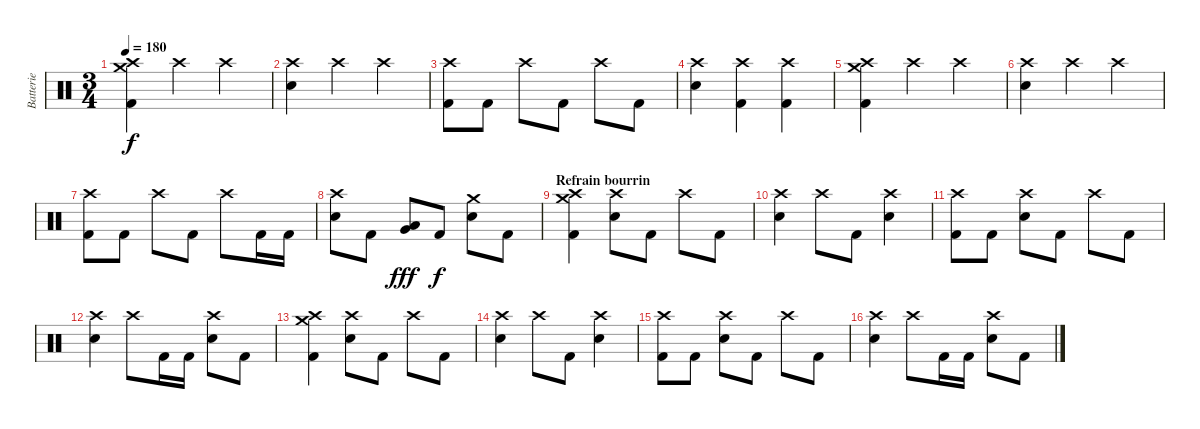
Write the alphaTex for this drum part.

\track ("Batterie" "Batterie") {instrument percussion}
\staff {score}
\articulation defaults
\ts (3 4)
\tempo 180
\clef neutral
\ks c
("Crash medium (hit)" "Crash high (hit)" "Kick (hit) 2").4{dy f} "Crash high (hit)".4 "Crash high (hit)".4 |
("Crash high (hit)" "Electric Snare (hit)").4 "Crash high (hit)".4 "Crash high (hit)".4 |
("Crash high (hit)" "Kick (hit) 2").8 "Kick (hit) 2".8 "Crash high (hit)".8 "Kick (hit) 2".8 "Crash high (hit)".8 "Kick (hit) 2".8 |
("Crash high (hit)" "Electric Snare (hit)").4 ("Crash high (hit)" "Kick (hit) 2").4 ("Crash high (hit)" "Kick (hit) 2").4 |
("Crash medium (hit)" "Crash high (hit)" "Kick (hit) 2").4 "Crash high (hit)".4 "Crash high (hit)".4 |
("Crash high (hit)" "Electric Snare (hit)").4 "Crash high (hit)".4 "Crash high (hit)".4 |
("Crash high (hit)" "Kick (hit) 2").8 "Kick (hit) 2".8 "Crash high (hit)".8 "Kick (hit) 2".8 "Crash high (hit)".8 "Kick (hit) 2".16 "Kick (hit) 2".16 |
("Crash high (hit)" "Electric Snare (hit)").8 "Kick (hit) 2".8 ("Low Tom (hit)" "Very Low Tom (hit)").8{dy fff} "Kick (hit) 2".8{dy f} ("Crash medium (hit)" "Electric Snare (hit)").8 "Kick (hit) 2".8 |
\section ("" "Refrain bourrin")
("Crash medium (hit)" "Crash high (hit)" "Kick (hit) 2").4 ("Crash high (hit)" "Electric Snare (hit)").8 "Kick (hit) 2".8 "Crash high (hit)".8 "Kick (hit) 2".8 |
("Crash high (hit)" "Electric Snare (hit)").4 "Crash high (hit)".8 "Kick (hit) 2".8 ("Crash high (hit)" "Electric Snare (hit)").4 |
("Crash high (hit)" "Kick (hit) 2").8 "Kick (hit) 2".8 ("Crash high (hit)" "Electric Snare (hit)").8 "Kick (hit) 2".8 "Crash high (hit)".8 "Kick (hit) 2".8 |
("Crash high (hit)" "Electric Snare (hit)").4 "Crash high (hit)".8 "Kick (hit) 2".16 "Kick (hit) 2".16 ("Crash high (hit)" "Electric Snare (hit)").8 "Kick (hit) 2".8 |
("Crash medium (hit)" "Crash high (hit)" "Kick (hit) 2").4 ("Crash high (hit)" "Electric Snare (hit)").8 "Kick (hit) 2".8 "Crash high (hit)".8 "Kick (hit) 2".8 |
("Crash high (hit)" "Electric Snare (hit)").4 "Crash high (hit)".8 "Kick (hit) 2".8 ("Crash high (hit)" "Electric Snare (hit)").4 |
("Crash high (hit)" "Kick (hit) 2").8 "Kick (hit) 2".8 ("Crash high (hit)" "Electric Snare (hit)").8 "Kick (hit) 2".8 "Crash high (hit)".8 "Kick (hit) 2".8 |
("Crash high (hit)" "Electric Snare (hit)").4 "Crash high (hit)".8 "Kick (hit) 2".16 "Kick (hit) 2".16 ("Crash high (hit)" "Electric Snare (hit)").8 "Kick (hit) 2".8
